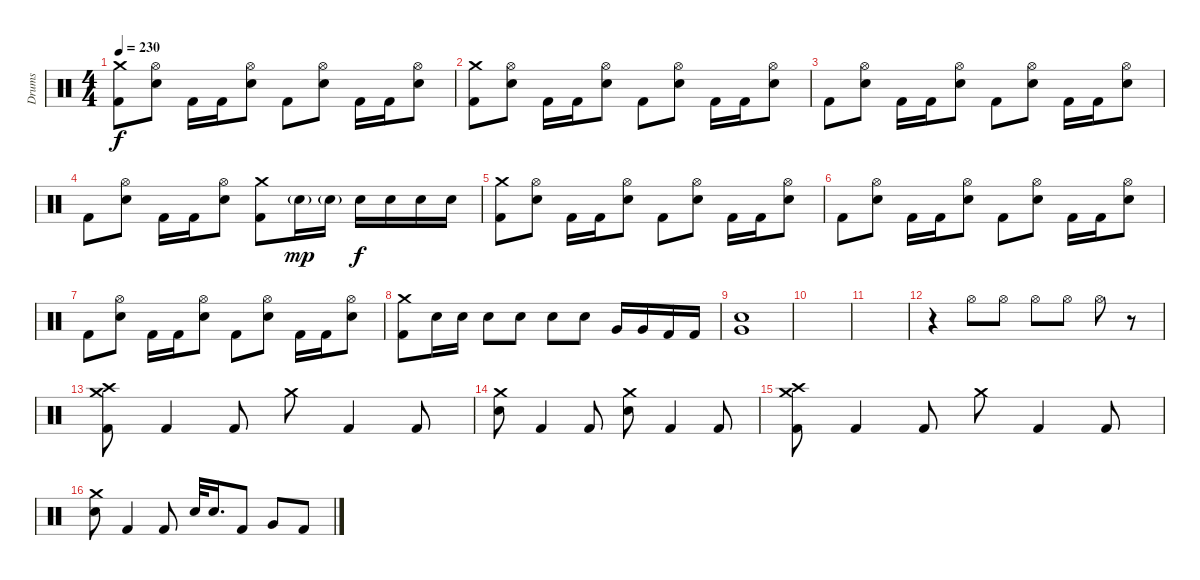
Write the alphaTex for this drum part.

\track ("Drums" "Drums") {instrument percussion}
\staff {score}
\articulation defaults
\ts (4 4)
\tempo 230
\clef neutral
\ks c
("Crash medium (hit)" "Kick (hit) 2").8{dy f} ("Hi-Hat (open)" "Electric Snare (hit)").8 "Kick (hit) 2".16 "Kick (hit) 2".16 ("Hi-Hat (open)" "Electric Snare (hit)").8 "Kick (hit) 2".8 ("Hi-Hat (open)" "Electric Snare (hit)").8 "Kick (hit) 2".16 "Kick (hit) 2".16 ("Hi-Hat (open)" "Electric Snare (hit)").8 |
("Crash medium (hit)" "Kick (hit) 2").8 ("Hi-Hat (open)" "Electric Snare (hit)").8 "Kick (hit) 2".16 "Kick (hit) 2".16 ("Hi-Hat (open)" "Electric Snare (hit)").8 "Kick (hit) 2".8 ("Hi-Hat (open)" "Electric Snare (hit)").8 "Kick (hit) 2".16 "Kick (hit) 2".16 ("Hi-Hat (open)" "Electric Snare (hit)").8 |
"Kick (hit) 2".8 ("Hi-Hat (open)" "Electric Snare (hit)").8 "Kick (hit) 2".16 "Kick (hit) 2".16 ("Hi-Hat (open)" "Electric Snare (hit)").8 "Kick (hit) 2".8 ("Hi-Hat (open)" "Electric Snare (hit)").8 "Kick (hit) 2".16 "Kick (hit) 2".16 ("Hi-Hat (open)" "Electric Snare (hit)").8 |
"Kick (hit) 2".8 ("Hi-Hat (open)" "Electric Snare (hit)").8 "Kick (hit) 2".16 "Kick (hit) 2".16 ("Hi-Hat (open)" "Electric Snare (hit)").8 ("Crash medium (hit)" "Kick (hit) 2").8 "Electric Snare (hit)"{g}.16{dy mp} "Electric Snare (hit)"{g}.16 "Electric Snare (hit)".16{dy f} "Electric Snare (hit)".16 "Electric Snare (hit)".16 "Electric Snare (hit)".16 |
("Crash medium (hit)" "Kick (hit) 2").8 ("Hi-Hat (open)" "Electric Snare (hit)").8 "Kick (hit) 2".16 "Kick (hit) 2".16 ("Hi-Hat (open)" "Electric Snare (hit)").8 "Kick (hit) 2".8 ("Hi-Hat (open)" "Electric Snare (hit)").8 "Kick (hit) 2".16 "Kick (hit) 2".16 ("Hi-Hat (open)" "Electric Snare (hit)").8 |
"Kick (hit) 2".8 ("Hi-Hat (open)" "Electric Snare (hit)").8 "Kick (hit) 2".16 "Kick (hit) 2".16 ("Hi-Hat (open)" "Electric Snare (hit)").8 "Kick (hit) 2".8 ("Hi-Hat (open)" "Electric Snare (hit)").8 "Kick (hit) 2".16 "Kick (hit) 2".16 ("Hi-Hat (open)" "Electric Snare (hit)").8 |
"Kick (hit) 2".8 ("Hi-Hat (open)" "Electric Snare (hit)").8 "Kick (hit) 2".16 "Kick (hit) 2".16 ("Hi-Hat (open)" "Electric Snare (hit)").8 "Kick (hit) 2".8 ("Hi-Hat (open)" "Electric Snare (hit)").8 "Kick (hit) 2".16 "Kick (hit) 2".16 ("Hi-Hat (open)" "Electric Snare (hit)").8 |
("Crash medium (hit)" "Kick (hit) 2").8 "Electric Snare (hit)".16 "Electric Snare (hit)".16 "Electric Snare (hit)".8 "Electric Snare (hit)".8 "Electric Snare (hit)".8 "Electric Snare (hit)".8 "Very Low Tom (hit)".16 "Very Low Tom (hit)".16 "Kick (hit) 2".16 "Kick (hit) 2".16 |
("Very Low Tom (hit)" "Electric Snare (hit)").1 |
|
|
r.4 "Hi-Hat (open)".8 "Hi-Hat (open)".8 "Hi-Hat (open)".8 "Hi-Hat (open)".8 "Hi-Hat (open)".8 r.8 |
("Crash medium (hit)" "Crash high (hit)" "Kick (hit) 2").8 "Kick (hit) 2".4 "Kick (hit) 2".8 "Crash medium (hit)".8 "Kick (hit) 2".4 "Kick (hit) 2".8 |
("Crash medium (hit)" "Electric Snare (hit)").8 "Kick (hit) 2".4 "Kick (hit) 2".8 ("Crash medium (hit)" "Electric Snare (hit)").8 "Kick (hit) 2".4 "Kick (hit) 2".8 |
("Crash medium (hit)" "Crash high (hit)" "Kick (hit) 2").8 "Kick (hit) 2".4 "Kick (hit) 2".8 "Crash medium (hit)".8 "Kick (hit) 2".4 "Kick (hit) 2".8 |
("Crash medium (hit)" "Electric Snare (hit)").8 "Kick (hit) 2".4 "Kick (hit) 2".8 "Electric Snare (hit)".32 "Electric Snare (hit)".16{d} "Kick (hit) 2".8 "Very Low Tom (hit)".8 "Kick (hit) 2".8
